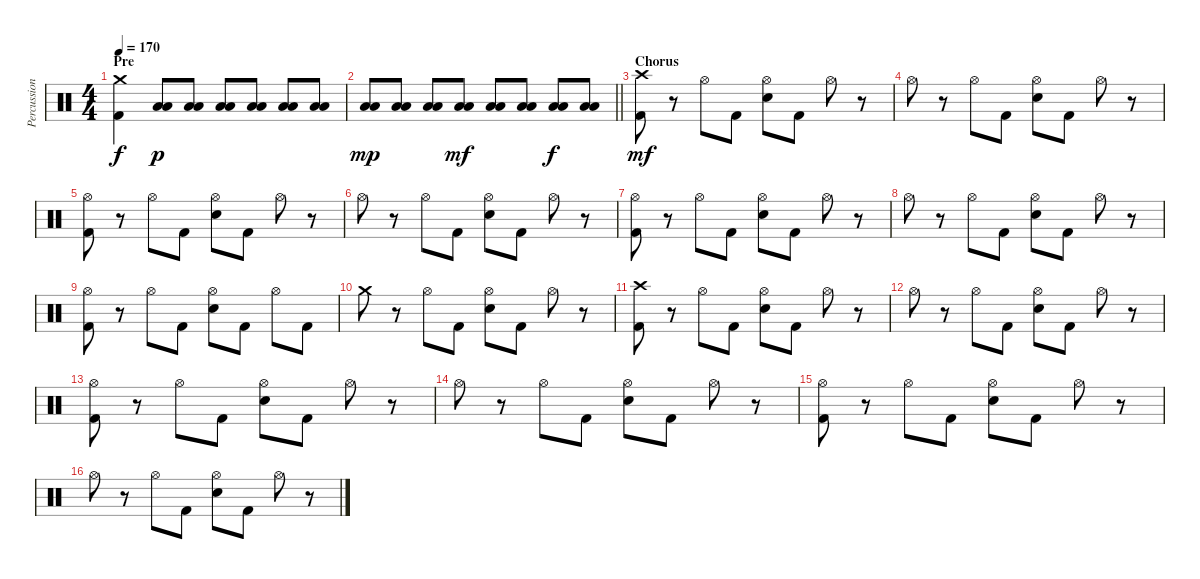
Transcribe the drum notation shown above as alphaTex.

\track ("Percussion" "Percussion") {instrument percussion}
\staff {score}
\articulation defaults
\ts (4 4)
\section ("" "Pre")
\tempo 170
\clef neutral
\ks c
("Crash medium (hit)" "Kick (hit) 2").4{dy f} ("Low Tom (hit)" "Low Floor Tom (hit)").8{dy p} ("Low Tom (hit)" "Low Floor Tom (hit)").8 ("Low Tom (hit)" "Low Floor Tom (hit)").8 ("Low Tom (hit)" "Low Floor Tom (hit)").8 ("Low Tom (hit)" "Low Floor Tom (hit)").8 ("Low Tom (hit)" "Low Floor Tom (hit)").8 |
\barLineRight lightlight
("Low Tom (hit)" "Low Floor Tom (hit)").8{dy mp} ("Low Tom (hit)" "Low Floor Tom (hit)").8 ("Low Tom (hit)" "Low Floor Tom (hit)").8 ("Low Tom (hit)" "Low Floor Tom (hit)").8{dy mf} ("Low Tom (hit)" "Low Floor Tom (hit)").8 ("Low Tom (hit)" "Low Floor Tom (hit)").8 ("Low Tom (hit)" "Low Floor Tom (hit)").8{dy f} ("Low Tom (hit)" "Low Floor Tom (hit)").8 |
\section ("" "Chorus")
("Crash high (hit)" "Kick (hit) 2").8{dy mf} r.8 "Hi-Hat (open)".8 "Kick (hit) 2".8 ("Hi-Hat (open)" "Electric Snare (hit)").8 "Kick (hit) 2".8 "Hi-Hat (open)".8 r.8 |
"Hi-Hat (open)".8 r.8 "Hi-Hat (open)".8 "Kick (hit) 2".8 ("Hi-Hat (open)" "Electric Snare (hit)").8 "Kick (hit) 2".8 "Hi-Hat (open)".8 r.8 |
("Hi-Hat (open)" "Kick (hit) 2").8 r.8 "Hi-Hat (open)".8 "Kick (hit) 2".8 ("Hi-Hat (open)" "Electric Snare (hit)").8 "Kick (hit) 2".8 "Hi-Hat (open)".8 r.8 |
"Hi-Hat (open)".8 r.8 "Hi-Hat (open)".8 "Kick (hit) 2".8 ("Hi-Hat (open)" "Electric Snare (hit)").8 "Kick (hit) 2".8 "Hi-Hat (open)".8 r.8 |
("Hi-Hat (open)" "Kick (hit) 2").8 r.8 "Hi-Hat (open)".8 "Kick (hit) 2".8 ("Hi-Hat (open)" "Electric Snare (hit)").8 "Kick (hit) 2".8 "Hi-Hat (open)".8 r.8 |
"Hi-Hat (open)".8 r.8 "Hi-Hat (open)".8 "Kick (hit) 2".8 ("Hi-Hat (open)" "Electric Snare (hit)").8 "Kick (hit) 2".8 "Hi-Hat (open)".8 r.8 |
("Hi-Hat (open)" "Kick (hit) 2").8 r.8 "Hi-Hat (open)".8 "Kick (hit) 2".8 ("Hi-Hat (open)" "Electric Snare (hit)").8 "Kick (hit) 2".8 "Hi-Hat (open)".8 "Kick (hit) 2".8 |
"Crash medium (hit)".8 r.8 "Hi-Hat (open)".8 "Kick (hit) 2".8 ("Hi-Hat (open)" "Electric Snare (hit)").8 "Kick (hit) 2".8 "Hi-Hat (open)".8 r.8 |
("Crash high (hit)" "Kick (hit) 2").8 r.8 "Hi-Hat (open)".8 "Kick (hit) 2".8 ("Hi-Hat (open)" "Electric Snare (hit)").8 "Kick (hit) 2".8 "Hi-Hat (open)".8 r.8 |
"Hi-Hat (open)".8 r.8 "Hi-Hat (open)".8 "Kick (hit) 2".8 ("Hi-Hat (open)" "Electric Snare (hit)").8 "Kick (hit) 2".8 "Hi-Hat (open)".8 r.8 |
("Hi-Hat (open)" "Kick (hit) 2").8 r.8 "Hi-Hat (open)".8 "Kick (hit) 2".8 ("Hi-Hat (open)" "Electric Snare (hit)").8 "Kick (hit) 2".8 "Hi-Hat (open)".8 r.8 |
"Hi-Hat (open)".8 r.8 "Hi-Hat (open)".8 "Kick (hit) 2".8 ("Hi-Hat (open)" "Electric Snare (hit)").8 "Kick (hit) 2".8 "Hi-Hat (open)".8 r.8 |
("Hi-Hat (open)" "Kick (hit) 2").8 r.8 "Hi-Hat (open)".8 "Kick (hit) 2".8 ("Hi-Hat (open)" "Electric Snare (hit)").8 "Kick (hit) 2".8 "Hi-Hat (open)".8 r.8 |
"Hi-Hat (open)".8 r.8 "Hi-Hat (open)".8 "Kick (hit) 2".8 ("Hi-Hat (open)" "Electric Snare (hit)").8 "Kick (hit) 2".8 "Hi-Hat (open)".8 r.8
